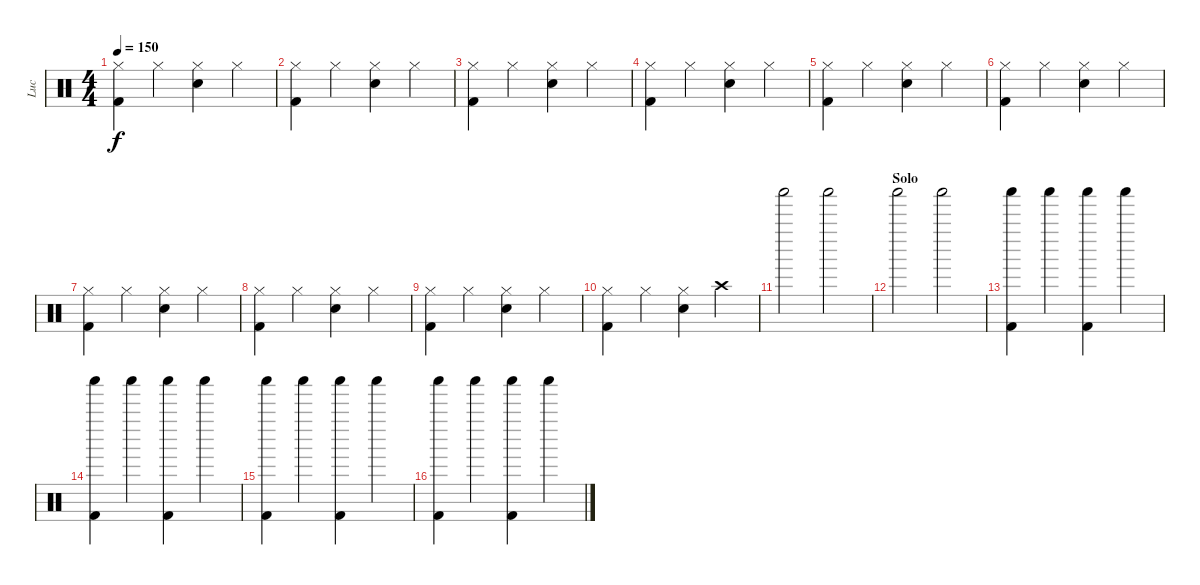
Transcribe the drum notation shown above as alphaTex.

\track ("Luc" "Luc") {instrument percussion}
\staff {score}
\articulation defaults
\ts (4 4)
\tempo 150
\clef neutral
\ks c
("Hi-Hat (closed)" "Kick (hit) 2").4{dy f} "Hi-Hat (closed)".4 ("Hi-Hat (closed)" "Snare (hit) 2").4 "Hi-Hat (closed)".4 |
("Hi-Hat (closed)" "Kick (hit) 2").4 "Hi-Hat (closed)".4 ("Hi-Hat (closed)" "Snare (hit) 2").4 "Hi-Hat (closed)".4 |
("Hi-Hat (closed)" "Kick (hit) 2").4 "Hi-Hat (closed)".4 ("Hi-Hat (closed)" "Snare (hit) 2").4 "Hi-Hat (closed)".4 |
("Hi-Hat (closed)" "Kick (hit) 2").4 "Hi-Hat (closed)".4 ("Hi-Hat (closed)" "Snare (hit) 2").4 "Hi-Hat (closed)".4 |
("Hi-Hat (closed)" "Kick (hit) 2").4 "Hi-Hat (closed)".4 ("Hi-Hat (closed)" "Snare (hit) 2").4 "Hi-Hat (closed)".4 |
("Hi-Hat (closed)" "Kick (hit) 2").4 "Hi-Hat (closed)".4 ("Hi-Hat (closed)" "Snare (hit) 2").4 "Hi-Hat (closed)".4 |
("Hi-Hat (closed)" "Kick (hit) 2").4 "Hi-Hat (closed)".4 ("Hi-Hat (closed)" "Snare (hit) 2").4 "Hi-Hat (closed)".4 |
("Hi-Hat (closed)" "Kick (hit) 2").4 "Hi-Hat (closed)".4 ("Hi-Hat (closed)" "Snare (hit) 2").4 "Hi-Hat (closed)".4 |
("Hi-Hat (closed)" "Kick (hit) 2").4 "Hi-Hat (closed)".4 ("Hi-Hat (closed)" "Snare (hit) 2").4 "Hi-Hat (closed)".4 |
("Hi-Hat (closed)" "Kick (hit) 2").4 "Hi-Hat (closed)".4 ("Hi-Hat (closed)" "Snare (hit) 2").4 "Crash high (hit)".4 |
"Shaker (hit)".2 "Shaker (hit)".2 |
\section ("" "Solo")
"Shaker (hit)".2 "Shaker (hit)".2 |
("Shaker (hit)" "Kick (hit) 2").4 "Shaker (hit)".4 ("Shaker (hit)" "Kick (hit) 2").4 "Shaker (hit)".4 |
("Shaker (hit)" "Kick (hit) 2").4 "Shaker (hit)".4 ("Shaker (hit)" "Kick (hit) 2").4 "Shaker (hit)".4 |
("Shaker (hit)" "Kick (hit) 2").4 "Shaker (hit)".4 ("Shaker (hit)" "Kick (hit) 2").4 "Shaker (hit)".4 |
("Shaker (hit)" "Kick (hit) 2").4 "Shaker (hit)".4 ("Shaker (hit)" "Kick (hit) 2").4 "Shaker (hit)".4
